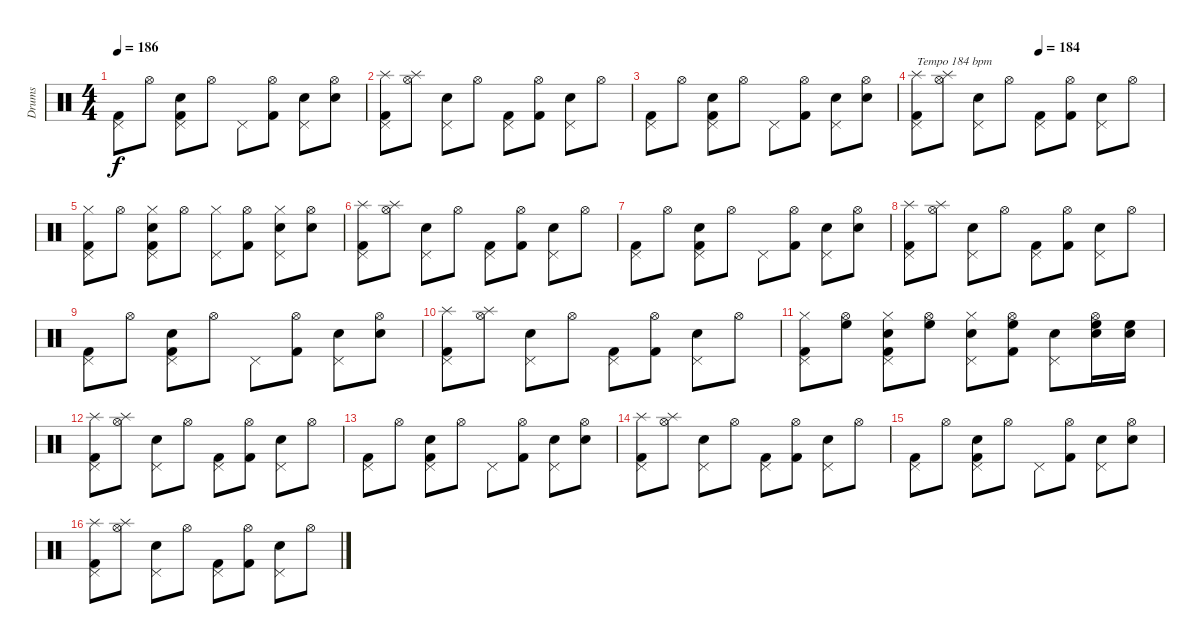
\track ("Drums" "Drums") {instrument percussion}
\staff {score}
\articulation defaults
\ts (4 4)
\tempo 186
\clef neutral
\ks c
("Pedal Hi-Hat (hit)" "Kick (hit) 2").8{dy f} "Hi-Hat (open)".8 ("Pedal Hi-Hat (hit)" "Snare (hit) 2" "Kick (hit) 2").8 "Hi-Hat (open)".8 "Pedal Hi-Hat (hit)".8 ("Hi-Hat (open)" "Kick (hit) 2").8 ("Pedal Hi-Hat (hit)" "Snare (hit) 2").8 ("Hi-Hat (open)" "Snare (hit) 2").8 |
("Pedal Hi-Hat (hit)" "Splash (hit)" "Kick (hit) 2").8 ("Hi-Hat (open)" "Splash (hit)").8 ("Pedal Hi-Hat (hit)" "Snare (hit) 2").8 "Hi-Hat (open)".8 ("Pedal Hi-Hat (hit)" "Kick (hit) 2").8 ("Hi-Hat (open)" "Kick (hit) 2").8 ("Pedal Hi-Hat (hit)" "Snare (hit) 2").8 "Hi-Hat (open)".8 |
("Pedal Hi-Hat (hit)" "Kick (hit) 2").8 "Hi-Hat (open)".8 ("Pedal Hi-Hat (hit)" "Snare (hit) 2" "Kick (hit) 2").8 "Hi-Hat (open)".8 "Pedal Hi-Hat (hit)".8 ("Hi-Hat (open)" "Kick (hit) 2").8 ("Pedal Hi-Hat (hit)" "Snare (hit) 2").8 ("Hi-Hat (open)" "Snare (hit) 2").8 |
\tempo (184 0.5)
("Pedal Hi-Hat (hit)" "Splash (hit)" "Kick (hit) 2").8{txt "Tempo 184 bpm"} ("Hi-Hat (open)" "Splash (hit)").8 ("Pedal Hi-Hat (hit)" "Snare (hit) 2").8 "Hi-Hat (open)".8 ("Pedal Hi-Hat (hit)" "Kick (hit) 2").8 ("Hi-Hat (open)" "Kick (hit) 2").8 ("Pedal Hi-Hat (hit)" "Snare (hit) 2").8 "Hi-Hat (open)".8 |
("Pedal Hi-Hat (hit)" "Hi-Hat (closed)" "Kick (hit) 2").8 "Hi-Hat (open)".8 ("Pedal Hi-Hat (hit)" "Hi-Hat (closed)" "Snare (hit) 2" "Kick (hit) 2").8 "Hi-Hat (open)".8 ("Pedal Hi-Hat (hit)" "Hi-Hat (closed)").8 ("Hi-Hat (open)" "Kick (hit) 2").8 ("Pedal Hi-Hat (hit)" "Hi-Hat (closed)" "Snare (hit) 2").8 ("Hi-Hat (open)" "Snare (hit) 2").8 |
("Pedal Hi-Hat (hit)" "Splash (hit)" "Kick (hit) 2").8 ("Hi-Hat (open)" "Splash (hit)").8 ("Pedal Hi-Hat (hit)" "Snare (hit) 2").8 "Hi-Hat (open)".8 ("Pedal Hi-Hat (hit)" "Kick (hit) 2").8 ("Hi-Hat (open)" "Kick (hit) 2").8 ("Pedal Hi-Hat (hit)" "Snare (hit) 2").8 "Hi-Hat (open)".8 |
("Pedal Hi-Hat (hit)" "Kick (hit) 2").8 "Hi-Hat (open)".8 ("Pedal Hi-Hat (hit)" "Snare (hit) 2" "Kick (hit) 2").8 "Hi-Hat (open)".8 "Pedal Hi-Hat (hit)".8 ("Hi-Hat (open)" "Kick (hit) 2").8 ("Pedal Hi-Hat (hit)" "Snare (hit) 2").8 ("Hi-Hat (open)" "Snare (hit) 2").8 |
("Pedal Hi-Hat (hit)" "Splash (hit)" "Kick (hit) 2").8 ("Hi-Hat (open)" "Splash (hit)").8 ("Pedal Hi-Hat (hit)" "Snare (hit) 2").8 "Hi-Hat (open)".8 ("Pedal Hi-Hat (hit)" "Kick (hit) 2").8 ("Hi-Hat (open)" "Kick (hit) 2").8 ("Pedal Hi-Hat (hit)" "Snare (hit) 2").8 "Hi-Hat (open)".8 |
("Pedal Hi-Hat (hit)" "Kick (hit) 2").8 "Hi-Hat (open)".8 ("Pedal Hi-Hat (hit)" "Snare (hit) 2" "Kick (hit) 2").8 "Hi-Hat (open)".8 "Pedal Hi-Hat (hit)".8 ("Hi-Hat (open)" "Kick (hit) 2").8 ("Pedal Hi-Hat (hit)" "Snare (hit) 2").8 ("Hi-Hat (open)" "Snare (hit) 2").8 |
("Pedal Hi-Hat (hit)" "Splash (hit)" "Kick (hit) 2").8 ("Hi-Hat (open)" "Splash (hit)").8 ("Pedal Hi-Hat (hit)" "Snare (hit) 2").8 "Hi-Hat (open)".8 ("Pedal Hi-Hat (hit)" "Kick (hit) 2").8 ("Hi-Hat (open)" "Kick (hit) 2").8 ("Pedal Hi-Hat (hit)" "Snare (hit) 2").8 "Hi-Hat (open)".8 |
("Pedal Hi-Hat (hit)" "Hi-Hat (closed)" "Kick (hit) 2").8 ("Hi-Hat (open)" "High Floor Tom (hit)").8 ("Pedal Hi-Hat (hit)" "Hi-Hat (closed)" "Snare (hit) 2" "Kick (hit) 2").8 ("Hi-Hat (open)" "High Floor Tom (hit)").8 ("Pedal Hi-Hat (hit)" "Hi-Hat (closed)" "Snare (hit) 2").8 ("Hi-Hat (open)" "High Floor Tom (hit)" "Kick (hit) 2").8 ("Pedal Hi-Hat (hit)" "Snare (hit) 2").8 ("Hi-Hat (open)" "High Floor Tom (hit)" "Snare (hit) 2").16 ("High Floor Tom (hit)" "Snare (hit) 2").16 |
("Pedal Hi-Hat (hit)" "Splash (hit)" "Kick (hit) 2").8 ("Hi-Hat (open)" "Splash (hit)").8 ("Pedal Hi-Hat (hit)" "Snare (hit) 2").8 "Hi-Hat (open)".8 ("Pedal Hi-Hat (hit)" "Kick (hit) 2").8 ("Hi-Hat (open)" "Kick (hit) 2").8 ("Pedal Hi-Hat (hit)" "Snare (hit) 2").8 "Hi-Hat (open)".8 |
("Pedal Hi-Hat (hit)" "Kick (hit) 2").8 "Hi-Hat (open)".8 ("Pedal Hi-Hat (hit)" "Snare (hit) 2" "Kick (hit) 2").8 "Hi-Hat (open)".8 "Pedal Hi-Hat (hit)".8 ("Hi-Hat (open)" "Kick (hit) 2").8 ("Pedal Hi-Hat (hit)" "Snare (hit) 2").8 ("Hi-Hat (open)" "Snare (hit) 2").8 |
("Pedal Hi-Hat (hit)" "Splash (hit)" "Kick (hit) 2").8 ("Hi-Hat (open)" "Splash (hit)").8 ("Pedal Hi-Hat (hit)" "Snare (hit) 2").8 "Hi-Hat (open)".8 ("Pedal Hi-Hat (hit)" "Kick (hit) 2").8 ("Hi-Hat (open)" "Kick (hit) 2").8 ("Pedal Hi-Hat (hit)" "Snare (hit) 2").8 "Hi-Hat (open)".8 |
("Pedal Hi-Hat (hit)" "Kick (hit) 2").8 "Hi-Hat (open)".8 ("Pedal Hi-Hat (hit)" "Snare (hit) 2" "Kick (hit) 2").8 "Hi-Hat (open)".8 "Pedal Hi-Hat (hit)".8 ("Hi-Hat (open)" "Kick (hit) 2").8 ("Pedal Hi-Hat (hit)" "Snare (hit) 2").8 ("Hi-Hat (open)" "Snare (hit) 2").8 |
("Pedal Hi-Hat (hit)" "Splash (hit)" "Kick (hit) 2").8 ("Hi-Hat (open)" "Splash (hit)").8 ("Pedal Hi-Hat (hit)" "Snare (hit) 2").8 "Hi-Hat (open)".8 ("Pedal Hi-Hat (hit)" "Kick (hit) 2").8 ("Hi-Hat (open)" "Kick (hit) 2").8 ("Pedal Hi-Hat (hit)" "Snare (hit) 2").8 "Hi-Hat (open)".8
